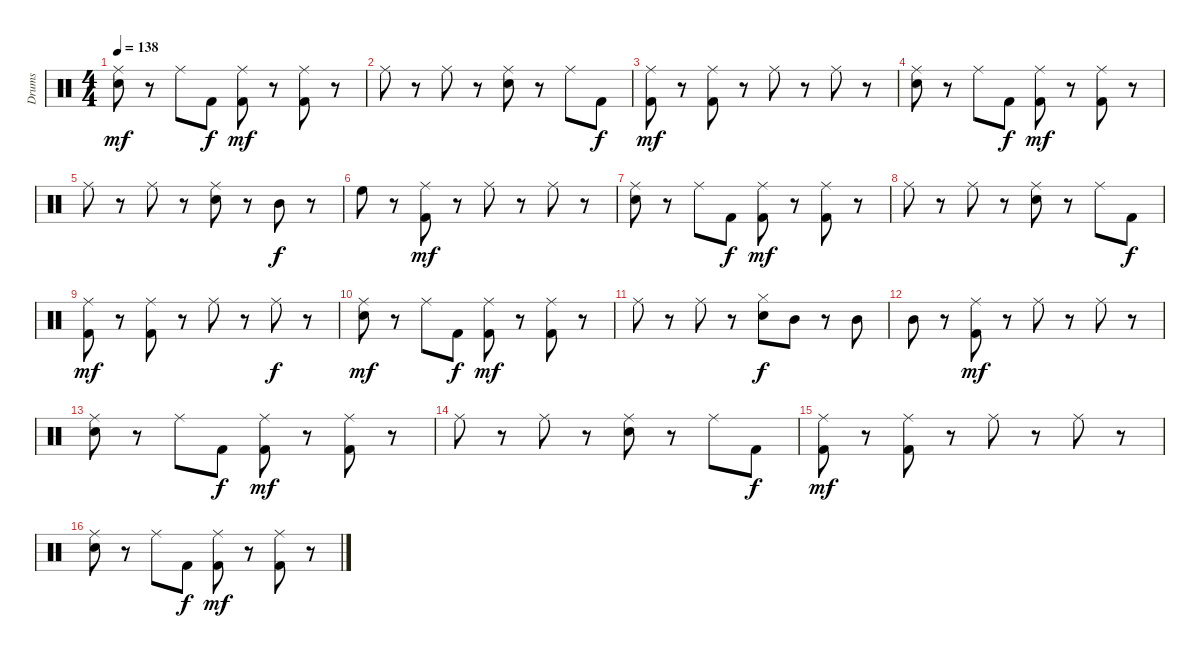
\track ("Drums" "Drums") {instrument percussion}
\staff {score}
\articulation defaults
\ts (4 4)
\tempo 138
\clef neutral
\ks c
("Ride (middle)" "Snare (hit) 2").8{dy mf} r.8 "Ride (middle)".8 "Kick (hit) 2".8{dy f} ("Ride (middle)" "Kick (hit) 2").8{dy mf} r.8 ("Ride (middle)" "Kick (hit) 2").8 r.8 |
"Ride (middle)".8 r.8 "Ride (middle)".8 r.8 ("Ride (middle)" "Snare (hit) 2").8 r.8 "Ride (middle)".8 "Kick (hit) 2".8{dy f} |
("Ride (middle)" "Kick (hit) 2").8{dy mf} r.8 ("Ride (middle)" "Kick (hit) 2").8 r.8 "Ride (middle)".8 r.8 "Ride (middle)".8 r.8 |
("Ride (middle)" "Snare (hit) 2").8 r.8 "Ride (middle)".8 "Kick (hit) 2".8{dy f} ("Ride (middle)" "Kick (hit) 2").8{dy mf} r.8 ("Ride (middle)" "Kick (hit) 2").8 r.8 |
"Ride (middle)".8 r.8 "Ride (middle)".8 r.8 ("Ride (middle)" "Snare (hit) 2").8 r.8 "Mid Tom (hit)".8{dy f} r.8 |
"High Floor Tom (hit)".8 r.8 ("Ride (middle)" "Kick (hit) 2").8{dy mf} r.8 "Ride (middle)".8 r.8 "Ride (middle)".8 r.8 |
("Ride (middle)" "Snare (hit) 2").8 r.8 "Ride (middle)".8 "Kick (hit) 2".8{dy f} ("Ride (middle)" "Kick (hit) 2").8{dy mf} r.8 ("Ride (middle)" "Kick (hit) 2").8 r.8 |
"Ride (middle)".8 r.8 "Ride (middle)".8 r.8 ("Ride (middle)" "Snare (hit) 2").8 r.8 "Ride (middle)".8 "Kick (hit) 2".8{dy f} |
("Ride (middle)" "Kick (hit) 2").8{dy mf} r.8 ("Ride (middle)" "Kick (hit) 2").8 r.8 "Ride (middle)".8 r.8 "Ride (middle)".8{dy f} r.8 |
("Ride (middle)" "Snare (hit) 2").8{dy mf} r.8 "Ride (middle)".8 "Kick (hit) 2".8{dy f} ("Ride (middle)" "Kick (hit) 2").8{dy mf} r.8 ("Ride (middle)" "Kick (hit) 2").8 r.8 |
"Ride (middle)".8 r.8 "Ride (middle)".8 r.8 ("Hi-Hat (closed)" "Snare (hit) 2").8{dy f} "Mid Tom (hit)".8 r.8 "Mid Tom (hit)".8 |
"Mid Tom (hit)".8 r.8 ("Ride (middle)" "Kick (hit) 2").8{dy mf} r.8 "Ride (middle)".8 r.8 "Ride (middle)".8 r.8 |
("Ride (middle)" "Snare (hit) 2").8 r.8 "Ride (middle)".8 "Kick (hit) 2".8{dy f} ("Ride (middle)" "Kick (hit) 2").8{dy mf} r.8 ("Ride (middle)" "Kick (hit) 2").8 r.8 |
"Ride (middle)".8 r.8 "Ride (middle)".8 r.8 ("Ride (middle)" "Snare (hit) 2").8 r.8 "Ride (middle)".8 "Kick (hit) 2".8{dy f} |
("Ride (middle)" "Kick (hit) 2").8{dy mf} r.8 ("Ride (middle)" "Kick (hit) 2").8 r.8 "Ride (middle)".8 r.8 "Ride (middle)".8 r.8 |
("Ride (middle)" "Snare (hit) 2").8 r.8 "Ride (middle)".8 "Kick (hit) 2".8{dy f} ("Ride (middle)" "Kick (hit) 2").8{dy mf} r.8 ("Ride (middle)" "Kick (hit) 2").8 r.8
